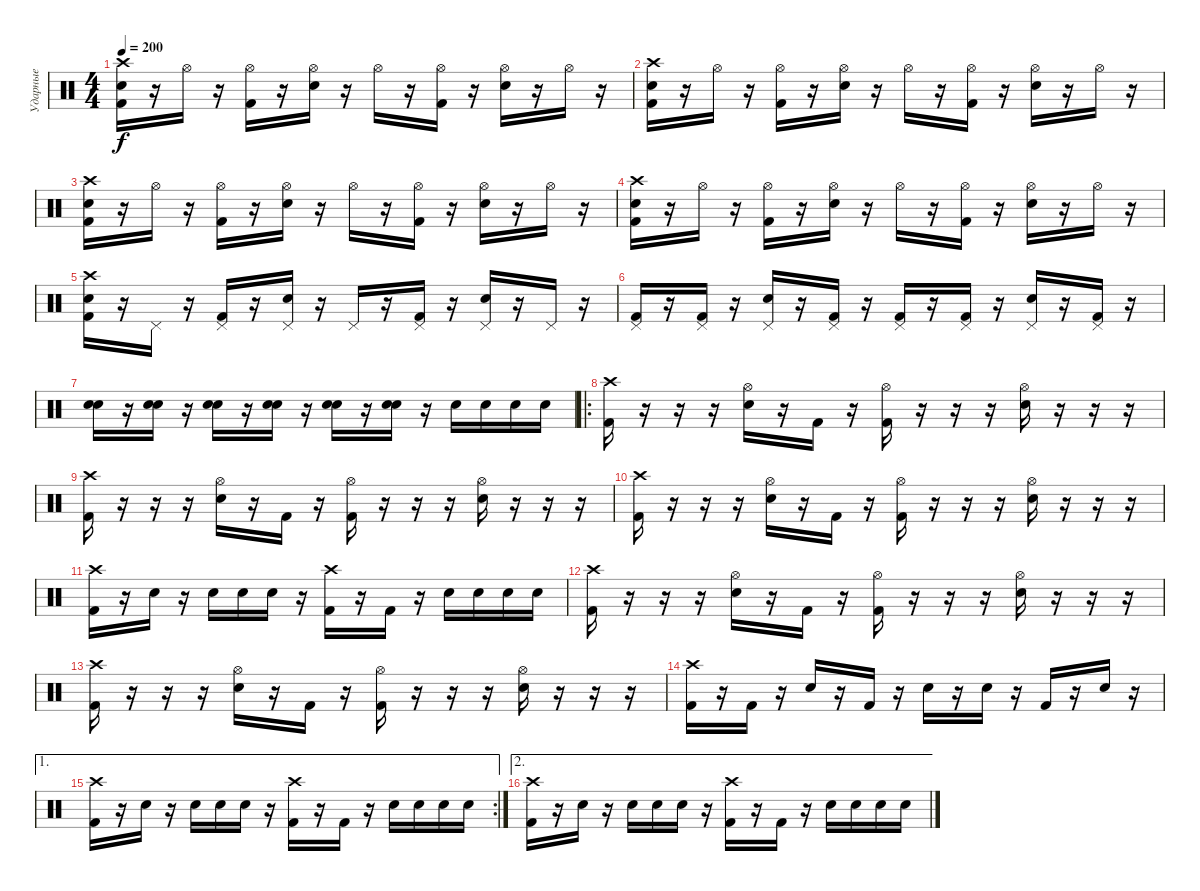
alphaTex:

\track ("Ударные" "Ударные") {solo instrument percussion}
\staff {score}
\articulation defaults
\ts (4 4)
\tempo 200
\clef neutral
\ks c
("Crash high (hit)" "Electric Snare (hit)" "Kick (hit) 2").16{dy f} r.16 "Hi-Hat (open)".16 r.16 ("Hi-Hat (open)" "Kick (hit) 2").16 r.16 ("Hi-Hat (open)" "Electric Snare (hit)").16 r.16 "Hi-Hat (open)".16 r.16 ("Hi-Hat (open)" "Kick (hit) 2").16 r.16 ("Hi-Hat (open)" "Electric Snare (hit)").16 r.16 "Hi-Hat (open)".16 r.16 |
("Crash high (hit)" "Electric Snare (hit)" "Kick (hit) 2").16 r.16 "Hi-Hat (open)".16 r.16 ("Hi-Hat (open)" "Kick (hit) 2").16 r.16 ("Hi-Hat (open)" "Electric Snare (hit)").16 r.16 "Hi-Hat (open)".16 r.16 ("Hi-Hat (open)" "Kick (hit) 2").16 r.16 ("Hi-Hat (open)" "Electric Snare (hit)").16 r.16 "Hi-Hat (open)".16 r.16 |
("Crash high (hit)" "Electric Snare (hit)" "Kick (hit) 2").16 r.16 "Hi-Hat (open)".16 r.16 ("Hi-Hat (open)" "Kick (hit) 2").16 r.16 ("Hi-Hat (open)" "Electric Snare (hit)").16 r.16 "Hi-Hat (open)".16 r.16 ("Hi-Hat (open)" "Kick (hit) 2").16 r.16 ("Hi-Hat (open)" "Electric Snare (hit)").16 r.16 "Hi-Hat (open)".16 r.16 |
("Crash high (hit)" "Electric Snare (hit)" "Kick (hit) 2").16 r.16 "Hi-Hat (open)".16 r.16 ("Hi-Hat (open)" "Kick (hit) 2").16 r.16 ("Hi-Hat (open)" "Electric Snare (hit)").16 r.16 "Hi-Hat (open)".16 r.16 ("Hi-Hat (open)" "Kick (hit) 2").16 r.16 ("Hi-Hat (open)" "Electric Snare (hit)").16 r.16 "Hi-Hat (open)".16 r.16 |
("Crash high (hit)" "Electric Snare (hit)" "Kick (hit) 2").16 r.16 "Pedal Hi-Hat (hit)".16 r.16 ("Pedal Hi-Hat (hit)" "Kick (hit) 2").16 r.16 ("Pedal Hi-Hat (hit)" "Electric Snare (hit)").16 r.16 "Pedal Hi-Hat (hit)".16 r.16 ("Pedal Hi-Hat (hit)" "Kick (hit) 2").16 r.16 ("Pedal Hi-Hat (hit)" "Electric Snare (hit)").16 r.16 "Pedal Hi-Hat (hit)".16 r.16 |
("Pedal Hi-Hat (hit)" "Kick (hit) 2").16 r.16 ("Pedal Hi-Hat (hit)" "Kick (hit) 2").16 r.16 ("Pedal Hi-Hat (hit)" "Electric Snare (hit)").16 r.16 ("Pedal Hi-Hat (hit)" "Kick (hit) 2").16 r.16 ("Pedal Hi-Hat (hit)" "Kick (hit) 2").16 r.16 ("Pedal Hi-Hat (hit)" "Kick (hit) 2").16 r.16 ("Pedal Hi-Hat (hit)" "Electric Snare (hit)").16 r.16 ("Pedal Hi-Hat (hit)" "Kick (hit) 2").16 r.16 |
("Electric Snare (hit)" "Electric Snare (hit)").16 r.16 ("Electric Snare (hit)" "Electric Snare (hit)").16 r.16 ("Electric Snare (hit)" "Electric Snare (hit)").16 r.16 ("Electric Snare (hit)" "Electric Snare (hit)").16 r.16 ("Electric Snare (hit)" "Electric Snare (hit)").16 r.16 ("Electric Snare (hit)" "Electric Snare (hit)").16 r.16 "Electric Snare (hit)".16 "Electric Snare (hit)".16 "Electric Snare (hit)".16 "Electric Snare (hit)".16 |
\ro
("Crash high (hit)" "Kick (hit) 2").16 r.16 r.16 r.16 ("Hi-Hat (open)" "Electric Snare (hit)").16 r.16 "Kick (hit) 2".16 r.16 ("Hi-Hat (open)" "Kick (hit) 2").16 r.16 r.16 r.16 ("Hi-Hat (open)" "Electric Snare (hit)").16 r.16 r.16 r.16 |
("Crash high (hit)" "Kick (hit) 2").16 r.16 r.16 r.16 ("Hi-Hat (open)" "Electric Snare (hit)").16 r.16 "Kick (hit) 2".16 r.16 ("Hi-Hat (open)" "Kick (hit) 2").16 r.16 r.16 r.16 ("Hi-Hat (open)" "Electric Snare (hit)").16 r.16 r.16 r.16 |
("Crash high (hit)" "Kick (hit) 2").16 r.16 r.16 r.16 ("Hi-Hat (open)" "Electric Snare (hit)").16 r.16 "Kick (hit) 2".16 r.16 ("Hi-Hat (open)" "Kick (hit) 2").16 r.16 r.16 r.16 ("Hi-Hat (open)" "Electric Snare (hit)").16 r.16 r.16 r.16 |
("Crash high (hit)" "Kick (hit) 2").16 r.16 "Electric Snare (hit)".16 r.16 "Electric Snare (hit)".16 "Electric Snare (hit)".16 "Electric Snare (hit)".16 r.16 ("Crash high (hit)" "Kick (hit) 2").16 r.16 "Kick (hit) 2".16 r.16 "Electric Snare (hit)".16 "Electric Snare (hit)".16 "Electric Snare (hit)".16 "Electric Snare (hit)".16 |
("Crash high (hit)" "Kick (hit) 2").16 r.16 r.16 r.16 ("Hi-Hat (open)" "Electric Snare (hit)").16 r.16 "Kick (hit) 2".16 r.16 ("Hi-Hat (open)" "Kick (hit) 2").16 r.16 r.16 r.16 ("Hi-Hat (open)" "Electric Snare (hit)").16 r.16 r.16 r.16 |
("Crash high (hit)" "Kick (hit) 2").16 r.16 r.16 r.16 ("Hi-Hat (open)" "Electric Snare (hit)").16 r.16 "Kick (hit) 2".16 r.16 ("Hi-Hat (open)" "Kick (hit) 2").16 r.16 r.16 r.16 ("Hi-Hat (open)" "Electric Snare (hit)").16 r.16 r.16 r.16 |
("Crash high (hit)" "Kick (hit) 2").16 r.16 "Kick (hit) 2".16 r.16 "Electric Snare (hit)".16 r.16 "Kick (hit) 2".16 r.16 "Electric Snare (hit)".16 r.16 "Electric Snare (hit)".16 r.16 "Kick (hit) 2".16 r.16 "Electric Snare (hit)".16 r.16 |
\ae 1
\rc 2
("Crash high (hit)" "Kick (hit) 2").16 r.16 "Electric Snare (hit)".16 r.16 "Electric Snare (hit)".16 "Electric Snare (hit)".16 "Electric Snare (hit)".16 r.16 ("Crash high (hit)" "Kick (hit) 2").16 r.16 "Kick (hit) 2".16 r.16 "Electric Snare (hit)".16 "Electric Snare (hit)".16 "Electric Snare (hit)".16 "Electric Snare (hit)".16 |
\ae 2
("Crash high (hit)" "Kick (hit) 2").16 r.16 "Electric Snare (hit)".16 r.16 "Electric Snare (hit)".16 "Electric Snare (hit)".16 "Electric Snare (hit)".16 r.16 ("Crash high (hit)" "Kick (hit) 2").16 r.16 "Kick (hit) 2".16 r.16 "Electric Snare (hit)".16 "Electric Snare (hit)".16 "Electric Snare (hit)".16 "Electric Snare (hit)".16
